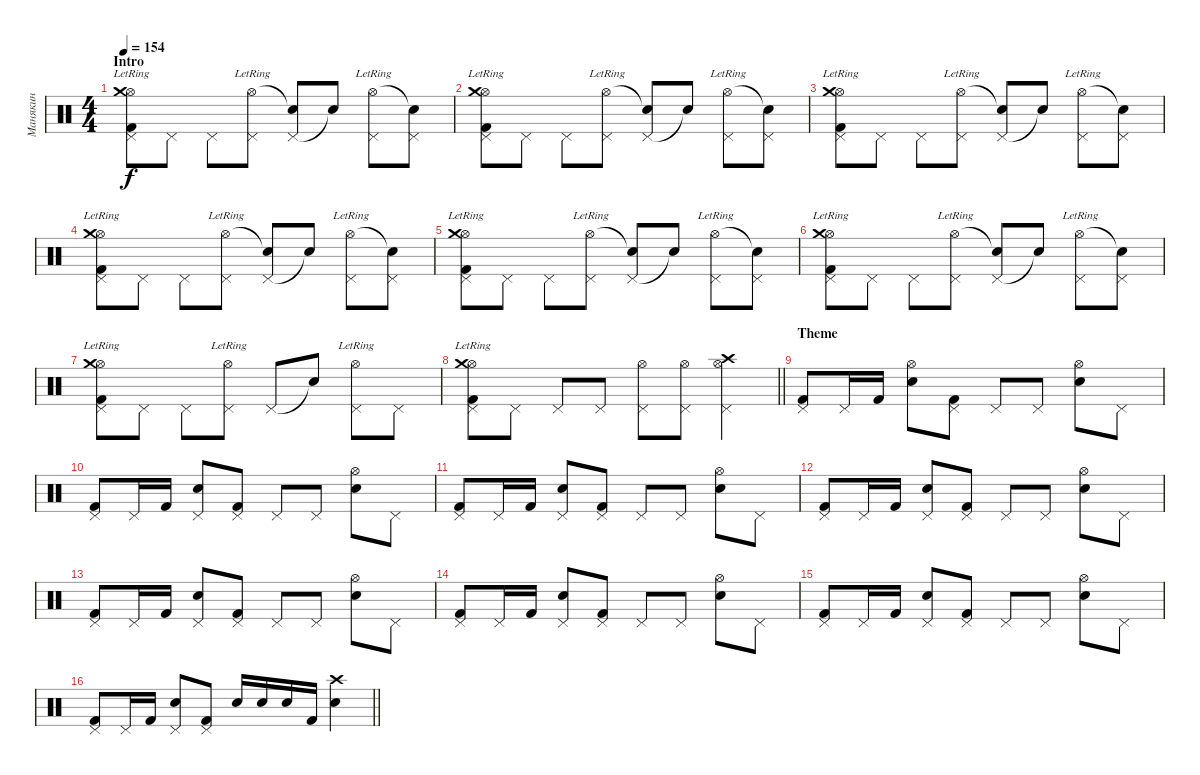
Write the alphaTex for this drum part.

\track ("Манякин" "Манякин") {instrument percussion}
\staff {score}
\articulation defaults
\ts (4 4)
\section ("" "Intro")
\tempo 154
\clef neutral
\ks c
("Hi-Hat (open)"{lr} "Crash medium (hit)"{lr} "Pedal Hi-Hat (hit)" "Kick (hit) 2"{lr}).8{dy f} "Pedal Hi-Hat (hit)".8 "Pedal Hi-Hat (hit)".8 ("Pedal Hi-Hat (hit)" "Hi-Hat (open)"{lr}).8 ("Pedal Hi-Hat (hit)" "Snare (hit)"{t}).8 "Snare (hit)"{t}.8 ("Pedal Hi-Hat (hit)" "Hi-Hat (open)"{lr}).8 ("Pedal Hi-Hat (hit)" "Snare (hit)"{t}).8 |
("Hi-Hat (open)"{lr} "Crash medium (hit)"{lr} "Pedal Hi-Hat (hit)" "Kick (hit) 2").8 "Pedal Hi-Hat (hit)".8 "Pedal Hi-Hat (hit)".8 ("Pedal Hi-Hat (hit)" "Hi-Hat (open)"{lr}).8 ("Pedal Hi-Hat (hit)" "Snare (hit)"{t}).8 "Snare (hit)"{t}.8 ("Pedal Hi-Hat (hit)" "Hi-Hat (open)"{lr}).8 ("Pedal Hi-Hat (hit)" "Snare (hit)"{t}).8 |
("Hi-Hat (open)"{lr} "Crash medium (hit)"{lr} "Pedal Hi-Hat (hit)" "Kick (hit) 2").8 "Pedal Hi-Hat (hit)".8 "Pedal Hi-Hat (hit)".8 ("Pedal Hi-Hat (hit)" "Hi-Hat (open)"{lr}).8 ("Pedal Hi-Hat (hit)" "Snare (hit)"{t}).8 "Snare (hit)"{t}.8 ("Pedal Hi-Hat (hit)" "Hi-Hat (open)"{lr}).8 ("Pedal Hi-Hat (hit)" "Snare (hit)"{t}).8 |
("Hi-Hat (open)"{lr} "Crash medium (hit)"{lr} "Pedal Hi-Hat (hit)" "Kick (hit) 2").8 "Pedal Hi-Hat (hit)".8 "Pedal Hi-Hat (hit)".8 ("Pedal Hi-Hat (hit)" "Hi-Hat (open)"{lr}).8 ("Pedal Hi-Hat (hit)" "Snare (hit)"{t}).8 "Snare (hit)"{t}.8 ("Pedal Hi-Hat (hit)" "Hi-Hat (open)"{lr}).8 ("Pedal Hi-Hat (hit)" "Snare (hit)"{t}).8 |
("Hi-Hat (open)"{lr} "Crash medium (hit)"{lr} "Pedal Hi-Hat (hit)" "Kick (hit) 2").8 "Pedal Hi-Hat (hit)".8 "Pedal Hi-Hat (hit)".8 ("Pedal Hi-Hat (hit)" "Hi-Hat (open)"{lr}).8 ("Pedal Hi-Hat (hit)" "Snare (hit)"{t}).8 "Snare (hit)"{t}.8 ("Pedal Hi-Hat (hit)"{lr} "Hi-Hat (open)"{lr}).8 ("Pedal Hi-Hat (hit)" "Snare (hit)"{t}).8 |
("Hi-Hat (open)"{lr} "Crash medium (hit)"{lr} "Pedal Hi-Hat (hit)" "Kick (hit) 2").8 "Pedal Hi-Hat (hit)".8 "Pedal Hi-Hat (hit)".8 ("Pedal Hi-Hat (hit)" "Hi-Hat (open)"{lr}).8 ("Pedal Hi-Hat (hit)" "Snare (hit)"{t}).8 "Snare (hit)"{t}.8 ("Pedal Hi-Hat (hit)" "Hi-Hat (open)"{lr}).8 ("Pedal Hi-Hat (hit)" "Snare (hit)"{t}).8 |
("Hi-Hat (open)"{lr} "Crash medium (hit)"{lr} "Pedal Hi-Hat (hit)" "Kick (hit) 2").8 "Pedal Hi-Hat (hit)".8 "Pedal Hi-Hat (hit)".8 ("Pedal Hi-Hat (hit)"{lr} "Hi-Hat (open)").8 "Pedal Hi-Hat (hit)".8 "Snare (hit)"{t}.8 ("Pedal Hi-Hat (hit)" "Hi-Hat (open)"{lr}).8 "Pedal Hi-Hat (hit)".8 |
\barLineRight lightlight
("Hi-Hat (open)"{lr} "Crash medium (hit)"{lr} "Pedal Hi-Hat (hit)" "Kick (hit) 2").8 "Pedal Hi-Hat (hit)".8 "Pedal Hi-Hat (hit)".8 "Pedal Hi-Hat (hit)".8 ("Pedal Hi-Hat (hit)" "Hi-Hat (open)").8 ("Pedal Hi-Hat (hit)" "Hi-Hat (open)").8 ("Crash high (hit)" "Pedal Hi-Hat (hit)" "Hi-Hat (open)").4 |
\section ("" "Theme")
("Pedal Hi-Hat (hit)" "Kick (hit) 2").8 "Pedal Hi-Hat (hit)".16 "Kick (hit) 2".16 ("Hi-Hat (open)" "Electric Snare (hit)").8 ("Pedal Hi-Hat (hit)" "Kick (hit) 2").8 "Pedal Hi-Hat (hit)".8 "Pedal Hi-Hat (hit)".8 ("Hi-Hat (open)" "Electric Snare (hit)").8 "Pedal Hi-Hat (hit)".8 |
("Pedal Hi-Hat (hit)" "Kick (hit) 2").8 "Pedal Hi-Hat (hit)".16 "Kick (hit) 2".16 ("Pedal Hi-Hat (hit)" "Electric Snare (hit)").8 ("Pedal Hi-Hat (hit)" "Kick (hit) 2").8 "Pedal Hi-Hat (hit)".8 "Pedal Hi-Hat (hit)".8 ("Hi-Hat (open)" "Electric Snare (hit)").8 "Pedal Hi-Hat (hit)".8 |
("Pedal Hi-Hat (hit)" "Kick (hit) 2").8 "Pedal Hi-Hat (hit)".16 "Kick (hit) 2".16 ("Pedal Hi-Hat (hit)" "Electric Snare (hit)").8 ("Pedal Hi-Hat (hit)" "Kick (hit) 2").8 "Pedal Hi-Hat (hit)".8 "Pedal Hi-Hat (hit)".8 ("Hi-Hat (open)" "Electric Snare (hit)").8 "Pedal Hi-Hat (hit)".8 |
("Pedal Hi-Hat (hit)" "Kick (hit) 2").8 "Pedal Hi-Hat (hit)".16 "Kick (hit) 2".16 ("Pedal Hi-Hat (hit)" "Electric Snare (hit)").8 ("Pedal Hi-Hat (hit)" "Kick (hit) 2").8 "Pedal Hi-Hat (hit)".8 "Pedal Hi-Hat (hit)".8 ("Hi-Hat (open)" "Electric Snare (hit)").8 "Pedal Hi-Hat (hit)".8 |
("Pedal Hi-Hat (hit)" "Kick (hit) 2").8 "Pedal Hi-Hat (hit)".16 "Kick (hit) 2".16 ("Pedal Hi-Hat (hit)" "Electric Snare (hit)").8 ("Pedal Hi-Hat (hit)" "Kick (hit) 2").8 "Pedal Hi-Hat (hit)".8 "Pedal Hi-Hat (hit)".8 ("Hi-Hat (open)" "Electric Snare (hit)").8 "Pedal Hi-Hat (hit)".8 |
("Pedal Hi-Hat (hit)" "Kick (hit) 2").8 "Pedal Hi-Hat (hit)".16 "Kick (hit) 2".16 ("Pedal Hi-Hat (hit)" "Electric Snare (hit)").8 ("Pedal Hi-Hat (hit)" "Kick (hit) 2").8 "Pedal Hi-Hat (hit)".8 "Pedal Hi-Hat (hit)".8 ("Hi-Hat (open)" "Electric Snare (hit)").8 "Pedal Hi-Hat (hit)".8 |
("Pedal Hi-Hat (hit)" "Kick (hit) 2").8 "Pedal Hi-Hat (hit)".16 "Kick (hit) 2".16 ("Pedal Hi-Hat (hit)" "Electric Snare (hit)").8 ("Pedal Hi-Hat (hit)" "Kick (hit) 2").8 "Pedal Hi-Hat (hit)".8 "Pedal Hi-Hat (hit)".8 ("Hi-Hat (open)" "Electric Snare (hit)").8 "Pedal Hi-Hat (hit)".8 |
\barLineRight lightlight
("Pedal Hi-Hat (hit)" "Kick (hit) 2").8 "Pedal Hi-Hat (hit)".16 "Kick (hit) 2".16 ("Pedal Hi-Hat (hit)" "Electric Snare (hit)").8 ("Pedal Hi-Hat (hit)" "Kick (hit) 2").8 "Electric Snare (hit)".16 "Electric Snare (hit)".16 "Electric Snare (hit)".16 "Kick (hit) 2".16 ("Crash high (hit)" "Electric Snare (hit)").4
